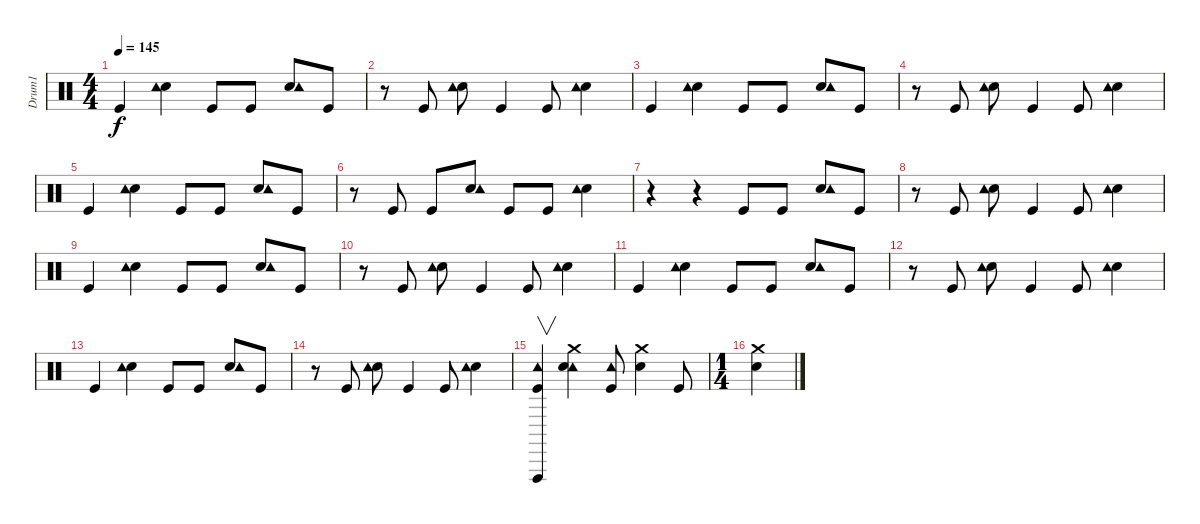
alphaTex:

\track ("Drum1" "Drum1") {instrument percussion}
\staff {score}
\articulation defaults
\ts (4 4)
\tempo 145
\clef neutral
\ks c "Kick (hit)".4{dy f}
("Snare (hit) 2" "Tambourine (hit)").4 "Kick (hit)".8 "Kick (hit)".8 ("Snare (hit) 2" "Tambourine (hit)").8 "Kick (hit)".8 |
r.8 "Kick (hit)".8 ("Snare (hit) 2" "Tambourine (hit)").8 "Kick (hit)".4 "Kick (hit)".8 ("Snare (hit) 2" "Tambourine (hit)").4 |
"Kick (hit)".4 ("Snare (hit) 2" "Tambourine (hit)").4 "Kick (hit)".8 "Kick (hit)".8 ("Snare (hit) 2" "Tambourine (hit)").8 "Kick (hit)".8 |
r.8 "Kick (hit)".8 ("Snare (hit) 2" "Tambourine (hit)").8 "Kick (hit)".4 "Kick (hit)".8 ("Snare (hit) 2" "Tambourine (hit)").4 |
"Kick (hit)".4 ("Snare (hit) 2" "Tambourine (hit)").4 "Kick (hit)".8 "Kick (hit)".8 ("Snare (hit) 2" "Tambourine (hit)").8 "Kick (hit)".8 |
r.8 "Kick (hit)".8 "Kick (hit)".8 ("Snare (hit) 2" "Tambourine (hit)").8 "Kick (hit)".8 "Kick (hit)".8 ("Snare (hit) 2" "Tambourine (hit)").4 |
r.4 r.4 "Kick (hit)".8 "Kick (hit)".8 ("Snare (hit) 2" "Tambourine (hit)").8 "Kick (hit)".8 |
r.8 "Kick (hit)".8 ("Snare (hit) 2" "Tambourine (hit)").8 "Kick (hit)".4 "Kick (hit)".8 ("Snare (hit) 2" "Tambourine (hit)").4 |
"Kick (hit)".4 ("Snare (hit) 2" "Tambourine (hit)").4 "Kick (hit)".8 "Kick (hit)".8 ("Snare (hit) 2" "Tambourine (hit)").8 "Kick (hit)".8 |
r.8 "Kick (hit)".8 ("Snare (hit) 2" "Tambourine (hit)").8 "Kick (hit)".4 "Kick (hit)".8 ("Snare (hit) 2" "Tambourine (hit)").4 |
"Kick (hit)".4 ("Snare (hit) 2" "Tambourine (hit)").4 "Kick (hit)".8 "Kick (hit)".8 ("Snare (hit) 2" "Tambourine (hit)").8 "Kick (hit)".8 |
r.8 "Kick (hit)".8 ("Snare (hit) 2" "Tambourine (hit)").8 "Kick (hit)".4 "Kick (hit)".8 ("Snare (hit) 2" "Tambourine (hit)").4 |
"Kick (hit)".4 ("Snare (hit) 2" "Tambourine (hit)").4 "Kick (hit)".8 "Kick (hit)".8 ("Snare (hit) 2" "Tambourine (hit)").8 "Kick (hit)".8 |
r.8 "Kick (hit)".8 ("Snare (hit) 2" "Tambourine (hit)").8 "Kick (hit)".4 "Kick (hit)".8 ("Snare (hit) 2" "Tambourine (hit)").4 |
("Tambourine (hit)" "Kick (hit)" "Vibraslap (hit)").4{v} ("Tambourine (hit)" "Snare (hit) 2" "Crash medium (hit)").4 ("Tambourine (hit)" "Kick (hit)").8 ("Snare (hit) 2" "Crash medium (hit)").4 "Kick (hit)".8 |
\ts (1 4)
("Snare (hit) 2" "Crash medium (hit)").4
